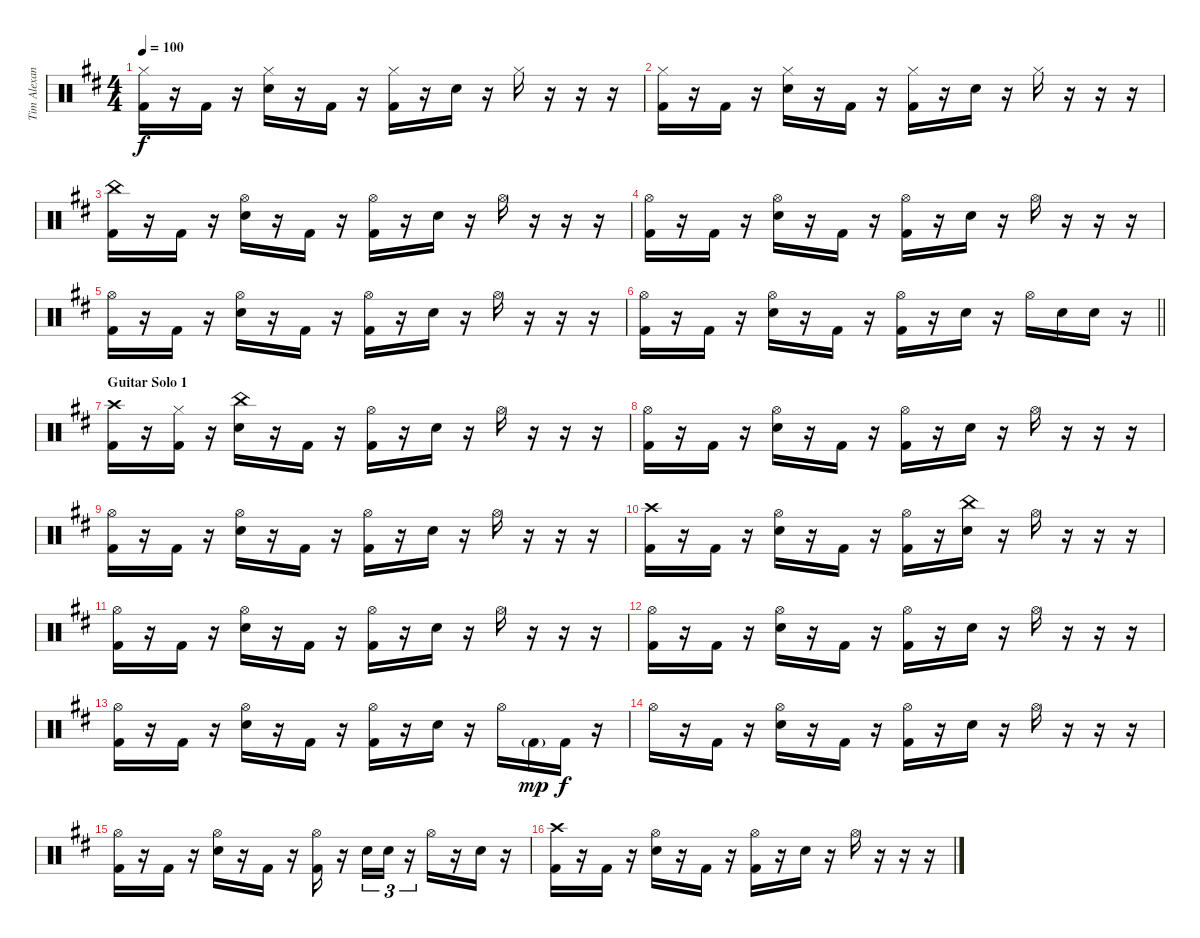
\track ("Tim Alexander" "Tim Alexan") {instrument percussion}
\staff {score}
\articulation defaults
\ts (4 4)
\tempo 100
\clef neutral
\ks d
("Hi-Hat (closed)" "Kick (hit) 2").16{dy f} r.16 "Kick (hit) 2".16 r.16 ("Hi-Hat (closed)" "Snare (hit) 2").16 r.16 "Kick (hit) 2".16 r.16 ("Hi-Hat (closed)" "Kick (hit) 2").16 r.16 "Snare (hit) 2".16 r.16 "Hi-Hat (closed)".16 r.16 r.16 r.16 |
("Hi-Hat (closed)" "Kick (hit) 2").16 r.16 "Kick (hit) 2".16 r.16 ("Hi-Hat (closed)" "Snare (hit) 2").16 r.16 "Kick (hit) 2".16 r.16 ("Hi-Hat (closed)" "Kick (hit) 2").16 r.16 "Snare (hit) 2".16 r.16 "Hi-Hat (closed)".16 r.16 r.16 r.16 |
("China (hit)" "Kick (hit) 2").16 r.16 "Kick (hit) 2".16 r.16 ("Hi-Hat (open)" "Snare (hit) 2").16 r.16 "Kick (hit) 2".16 r.16 ("Hi-Hat (open)" "Kick (hit) 2").16 r.16 "Snare (hit) 2".16 r.16 "Hi-Hat (open)".16 r.16 r.16 r.16 |
("Hi-Hat (open)" "Kick (hit) 2").16 r.16 "Kick (hit) 2".16 r.16 ("Hi-Hat (open)" "Snare (hit) 2").16 r.16 "Kick (hit) 2".16 r.16 ("Hi-Hat (open)" "Kick (hit) 2").16 r.16 "Snare (hit) 2".16 r.16 "Hi-Hat (open)".16 r.16 r.16 r.16 |
("Hi-Hat (open)" "Kick (hit) 2").16 r.16 "Kick (hit) 2".16 r.16 ("Hi-Hat (open)" "Snare (hit) 2").16 r.16 "Kick (hit) 2".16 r.16 ("Hi-Hat (open)" "Kick (hit) 2").16 r.16 "Snare (hit) 2".16 r.16 "Hi-Hat (open)".16 r.16 r.16 r.16 |
\barLineRight lightlight
("Hi-Hat (open)" "Kick (hit) 2").16 r.16 "Kick (hit) 2".16 r.16 ("Hi-Hat (open)" "Snare (hit) 2").16 r.16 "Kick (hit) 2".16 r.16 ("Hi-Hat (open)" "Kick (hit) 2").16 r.16 "Snare (hit) 2".16 r.16 "Hi-Hat (open)".16 "Snare (hit) 2".16 "Snare (hit) 2".16 r.16 |
\section ("" "Guitar Solo 1")
("Crash high (hit)" "Kick (hit) 2").16 r.16 ("Hi-Hat (closed)" "Kick (hit) 2").16 r.16 ("China (hit)" "Snare (hit) 2").16 r.16 "Kick (hit) 2".16 r.16 ("Hi-Hat (open)" "Kick (hit) 2").16 r.16 "Snare (hit) 2".16 r.16 "Hi-Hat (open)".16 r.16 r.16 r.16 |
("Hi-Hat (open)" "Kick (hit) 2").16 r.16 "Kick (hit) 2".16 r.16 ("Hi-Hat (open)" "Snare (hit) 2").16 r.16 "Kick (hit) 2".16 r.16 ("Hi-Hat (open)" "Kick (hit) 2").16 r.16 "Snare (hit) 2".16 r.16 "Hi-Hat (open)".16 r.16 r.16 r.16 |
("Hi-Hat (open)" "Kick (hit) 2").16 r.16 "Kick (hit) 2".16 r.16 ("Hi-Hat (open)" "Snare (hit) 2").16 r.16 "Kick (hit) 2".16 r.16 ("Hi-Hat (open)" "Kick (hit) 2").16 r.16 "Snare (hit) 2".16 r.16 "Hi-Hat (open)".16 r.16 r.16 r.16 |
("Crash high (hit)" "Kick (hit) 2").16 r.16 "Kick (hit) 2".16 r.16 ("Hi-Hat (open)" "Snare (hit) 2").16 r.16 "Kick (hit) 2".16 r.16 ("Hi-Hat (open)" "Kick (hit) 2").16 r.16 ("China (hit)" "Snare (hit) 2").16 r.16 "Hi-Hat (open)".16 r.16 r.16 r.16 |
("Hi-Hat (open)" "Kick (hit) 2").16 r.16 "Kick (hit) 2".16 r.16 ("Hi-Hat (open)" "Snare (hit) 2").16 r.16 "Kick (hit) 2".16 r.16 ("Hi-Hat (open)" "Kick (hit) 2").16 r.16 "Snare (hit) 2".16 r.16 "Hi-Hat (open)".16 r.16 r.16 r.16 |
("Hi-Hat (open)" "Kick (hit) 2").16 r.16 "Kick (hit) 2".16 r.16 ("Hi-Hat (open)" "Snare (hit) 2").16 r.16 "Kick (hit) 2".16 r.16 ("Hi-Hat (open)" "Kick (hit) 2").16 r.16 "Snare (hit) 2".16 r.16 "Hi-Hat (open)".16 r.16 r.16 r.16 |
("Hi-Hat (open)" "Kick (hit) 2").16 r.16 "Kick (hit) 2".16 r.16 ("Hi-Hat (open)" "Snare (hit) 2").16 r.16 "Kick (hit) 2".16 r.16 ("Hi-Hat (open)" "Kick (hit) 2").16 r.16 "Snare (hit) 2".16 r.16 "Hi-Hat (open)".16 "Kick (hit) 2"{g}.16{dy mp} "Kick (hit) 2".16{dy f} r.16 |
"Hi-Hat (open)".16 r.16 "Kick (hit) 2".16 r.16 ("Hi-Hat (open)" "Snare (hit) 2").16 r.16 "Kick (hit) 2".16 r.16 ("Hi-Hat (open)" "Kick (hit) 2").16 r.16 "Snare (hit) 2".16 r.16 "Hi-Hat (open)".16 r.16 r.16 r.16 |
("Hi-Hat (open)" "Kick (hit) 2").16 r.16 "Kick (hit) 2".16 r.16 ("Hi-Hat (open)" "Snare (hit) 2").16 r.16 "Kick (hit) 2".16 r.16 ("Hi-Hat (open)" "Kick (hit) 2").16 r.16 "Snare (hit) 2".16{tu (3 2)} "Snare (hit) 2".16{tu (3 2)} r.16{tu (3 2)} "Hi-Hat (open)".16 r.16 "Snare (hit) 2".16 r.16 |
("Crash high (hit)" "Kick (hit) 2").16 r.16 "Kick (hit) 2".16 r.16 ("Hi-Hat (open)" "Snare (hit) 2").16 r.16 "Kick (hit) 2".16 r.16 ("Hi-Hat (open)" "Kick (hit) 2").16 r.16 "Snare (hit) 2".16 r.16 "Hi-Hat (open)".16 r.16 r.16 r.16
